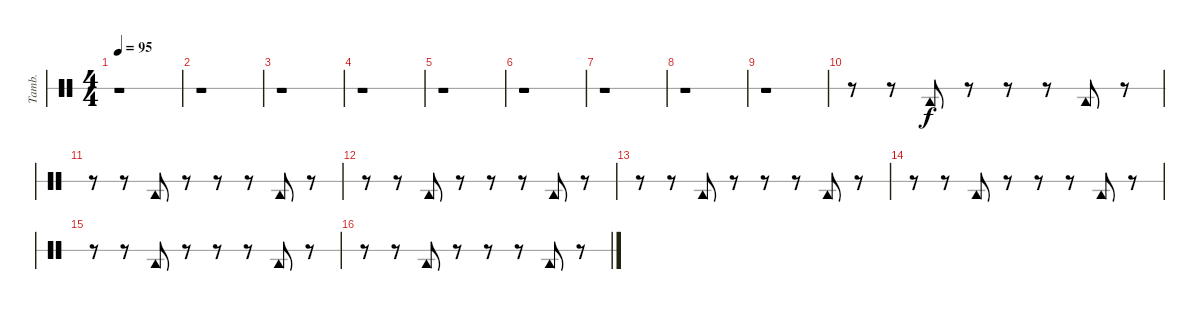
\bracketExtendMode groupsimilarinstruments
\otherSystemsTrackNameOrientation horizontal
\track ("Tambourine" "Tamb.") {instrument percussion}
\staff {score 1}
\articulation defaults
\ts (4 4)
\beaming (8 2 2 2 2)
\tempo 95
\clef neutral
\ks c
r.1{dy f} |
r.1 |
r.1 |
r.1 |
r.1 |
r.1 |
r.1 |
r.1 |
r.1 |
r.8 r.8 "Tambourine (hit)".8 r.8 r.8 r.8 "Tambourine (hit)".8 r.8 |
r.8 r.8 "Tambourine (hit)".8 r.8 r.8 r.8 "Tambourine (hit)".8 r.8 |
r.8 r.8 "Tambourine (hit)".8 r.8 r.8 r.8 "Tambourine (hit)".8 r.8 |
r.8 r.8 "Tambourine (hit)".8 r.8 r.8 r.8 "Tambourine (hit)".8 r.8 |
r.8 r.8 "Tambourine (hit)".8 r.8 r.8 r.8 "Tambourine (hit)".8 r.8 |
r.8 r.8 "Tambourine (hit)".8 r.8 r.8 r.8 "Tambourine (hit)".8 r.8 |
r.8 r.8 "Tambourine (hit)".8 r.8 r.8 r.8 "Tambourine (hit)".8 r.8
